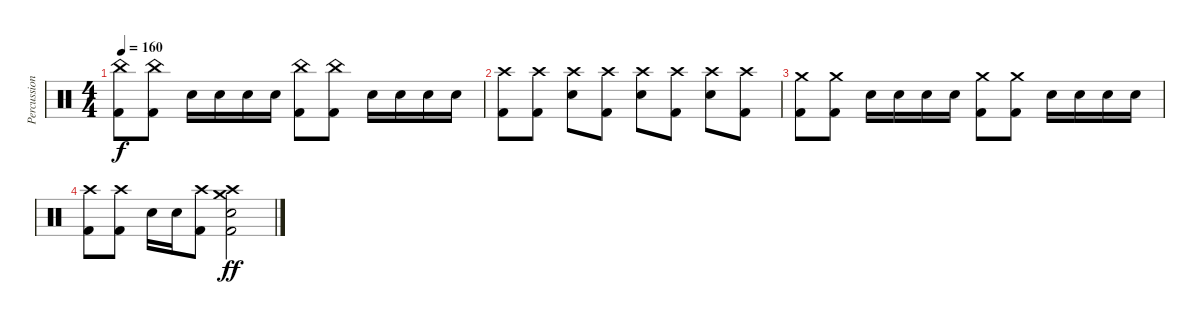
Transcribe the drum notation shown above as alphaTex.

\track ("Percussions" "Percussion") {instrument percussion}
\staff {score}
\articulation defaults
\ts (4 4)
\tempo 160
\clef neutral
\ks c
("China (hit)" "Kick (hit) 2").8{dy f} ("China (hit)" "Kick (hit) 2").8 "Snare (hit) 2".16 "Snare (hit) 2".16 "Snare (hit) 2".16 "Snare (hit) 2".16 ("China (hit)" "Kick (hit) 2").8 ("China (hit)" "Kick (hit) 2").8 "Snare (hit) 2".16 "Snare (hit) 2".16 "Snare (hit) 2".16 "Snare (hit) 2".16 |
("Crash high (hit)" "Kick (hit) 2").8 ("Crash high (hit)" "Kick (hit) 2").8 ("Crash high (hit)" "Snare (hit) 2").8 ("Crash high (hit)" "Kick (hit) 2").8 ("Crash high (hit)" "Snare (hit) 2").8 ("Crash high (hit)" "Kick (hit) 2").8 ("Crash high (hit)" "Snare (hit) 2").8 ("Crash high (hit)" "Kick (hit) 2").8 |
("Crash medium (hit)" "Kick (hit) 2").8 ("Crash medium (hit)" "Kick (hit) 2").8 "Snare (hit) 2".16 "Snare (hit) 2".16 "Snare (hit) 2".16 "Snare (hit) 2".16 ("Crash medium (hit)" "Kick (hit) 2").8 ("Crash medium (hit)" "Kick (hit) 2").8 "Snare (hit) 2".16 "Snare (hit) 2".16 "Snare (hit) 2".16 "Snare (hit) 2".16 |
("Crash high (hit)" "Kick (hit) 2").8 ("Crash high (hit)" "Kick (hit) 2").8 "Snare (hit) 2".16 "Snare (hit) 2".16 ("Crash high (hit)" "Kick (hit) 2").8 ("Crash medium (hit)" "Crash high (hit)" "Snare (hit) 2" "Kick (hit) 2").2{dy ff}
